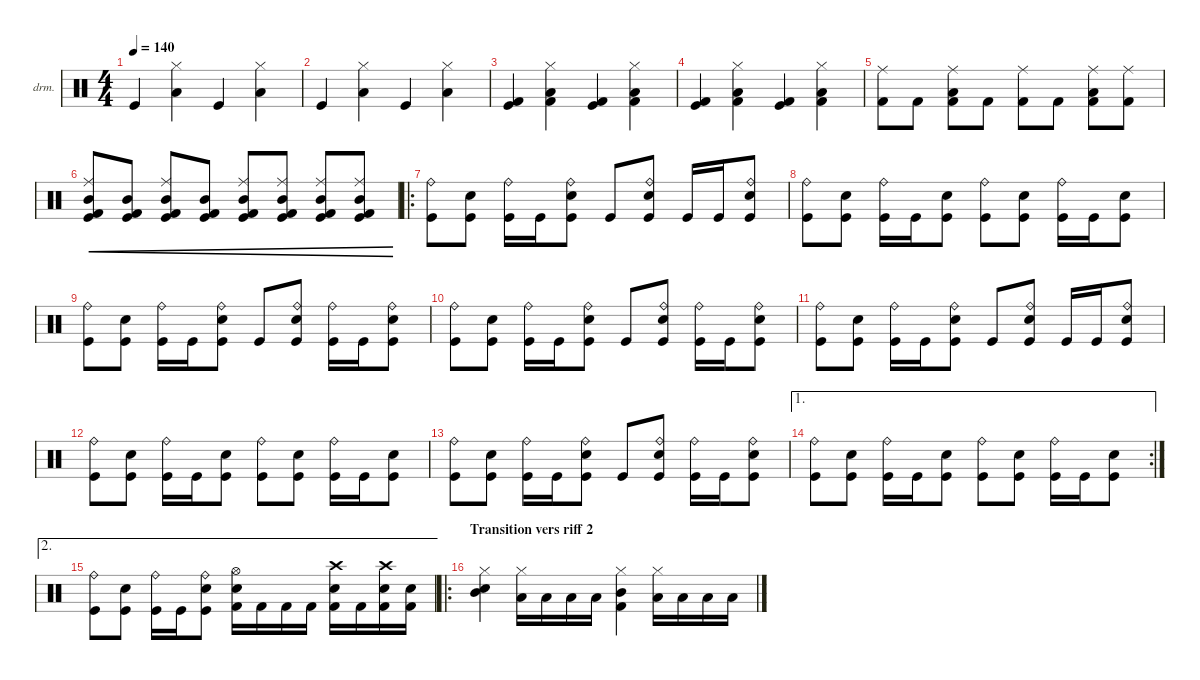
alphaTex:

\defaultSystemsLayout 4
\hideDynamics
\bracketExtendMode nobrackets
\firstSystemTrackNameOrientation horizontal
\otherSystemsTrackNameOrientation horizontal
\track ("Drumkit" "drm.") {instrument percussion}
\staff {score}
\articulation defaults
\ts (4 4)
\tempo 140
\clef neutral
\ks c "Kick (hit)".4{dy mf}
("Hi-Hat (closed)" "Low Tom (hit)").4 "Kick (hit)".4 ("Hi-Hat (closed)" "Low Tom (hit)").4 |
"Kick (hit)".4 ("Hi-Hat (closed)" "Low Tom (hit)").4 "Kick (hit)".4 ("Hi-Hat (closed)" "Low Tom (hit)").4 |
("Kick (hit)" "Kick (hit) 2").4 ("Hi-Hat (closed)" "Low Tom (hit)" "Kick (hit) 2").4 ("Kick (hit)" "Kick (hit) 2").4 ("Hi-Hat (closed)" "Low Tom (hit)" "Kick (hit) 2").4 |
("Kick (hit)" "Kick (hit) 2").4 ("Hi-Hat (closed)" "Low Tom (hit)" "Kick (hit) 2").4 ("Kick (hit)" "Kick (hit) 2").4 ("Hi-Hat (closed)" "Low Tom (hit)" "Kick (hit) 2").4 |
("Ride (middle)" "Kick (hit) 2").8 "Kick (hit) 2".8 ("Low Tom (hit)" "Ride (middle)" "Kick (hit) 2").8 "Kick (hit) 2".8 ("Ride (middle)" "Kick (hit) 2").8 "Kick (hit) 2".8 ("Low Tom (hit)" "Ride (middle)" "Kick (hit) 2").8 ("Ride (middle)" "Kick (hit) 2").8 |
("Mid Tom (hit)" "Kick (hit) 2" "Kick (hit)" "Ride (middle)").8{cre} ("Mid Tom (hit)" "Kick (hit)" "Kick (hit) 2").8{cre} ("Mid Tom (hit)" "Kick (hit)" "Kick (hit) 2" "Ride (middle)").8{cre} ("Mid Tom (hit)" "Kick (hit)" "Kick (hit) 2").8{cre} ("Mid Tom (hit)" "Kick (hit)" "Kick (hit) 2" "Ride (middle)").8{cre} ("Mid Tom (hit)" "Kick (hit)" "Kick (hit) 2" "Ride (middle)").8{cre} ("Mid Tom (hit)" "Kick (hit)" "Kick (hit) 2" "Ride (middle)").8{cre} ("Mid Tom (hit)" "Kick (hit)" "Kick (hit) 2" "Ride (middle)").8{cre} |
\ro
("Kick (hit)" "Ride (bell)").8 ("Snare (hit) 2" "Kick (hit)").8 ("Kick (hit)" "Ride (bell)").16 "Kick (hit)".16 ("Snare (hit) 2" "Kick (hit)" "Ride (bell)").8 "Kick (hit)".8 ("Snare (hit) 2" "Kick (hit)" "Ride (bell)").8 "Kick (hit)".16 "Kick (hit)".16 ("Snare (hit) 2" "Kick (hit)" "Ride (bell)").8 |
("Kick (hit)" "Ride (bell)").8 ("Snare (hit) 2" "Kick (hit)").8 ("Kick (hit)" "Ride (bell)").16 "Kick (hit)".16 ("Snare (hit) 2" "Kick (hit)").8 ("Kick (hit)" "Ride (bell)").8 ("Snare (hit) 2" "Kick (hit)").8 ("Kick (hit)" "Ride (bell)").16 "Kick (hit)".16 ("Snare (hit) 2" "Kick (hit)").8 |
("Kick (hit)" "Ride (bell)").8 ("Snare (hit) 2" "Kick (hit)").8 ("Kick (hit)" "Ride (bell)").16 "Kick (hit)".16 ("Snare (hit) 2" "Kick (hit)" "Ride (bell)").8 "Kick (hit)".8 ("Snare (hit) 2" "Kick (hit)" "Ride (bell)").8 ("Kick (hit)" "Ride (bell)").16 "Kick (hit)".16 ("Snare (hit) 2" "Kick (hit)" "Ride (bell)").8 |
("Kick (hit)" "Ride (bell)").8 ("Snare (hit) 2" "Kick (hit)").8 ("Kick (hit)" "Ride (bell)").16 "Kick (hit)".16 ("Snare (hit) 2" "Kick (hit)" "Ride (bell)").8 "Kick (hit)".8 ("Snare (hit) 2" "Kick (hit)" "Ride (bell)").8 ("Kick (hit)" "Ride (bell)").16 "Kick (hit)".16 ("Snare (hit) 2" "Kick (hit)" "Ride (bell)").8 |
("Kick (hit)" "Ride (bell)").8 ("Snare (hit) 2" "Kick (hit)").8 ("Kick (hit)" "Ride (bell)").16 "Kick (hit)".16 ("Snare (hit) 2" "Kick (hit)" "Ride (bell)").8 "Kick (hit)".8 ("Snare (hit) 2" "Kick (hit)" "Ride (bell)").8 "Kick (hit)".16 "Kick (hit)".16 ("Snare (hit) 2" "Kick (hit)" "Ride (bell)").8 |
("Kick (hit)" "Ride (bell)").8 ("Snare (hit) 2" "Kick (hit)").8 ("Kick (hit)" "Ride (bell)").16 "Kick (hit)".16 ("Snare (hit) 2" "Kick (hit)").8 ("Kick (hit)" "Ride (bell)").8 ("Snare (hit) 2" "Kick (hit)").8 ("Kick (hit)" "Ride (bell)").16 "Kick (hit)".16 ("Snare (hit) 2" "Kick (hit)").8 |
("Kick (hit)" "Ride (bell)").8 ("Snare (hit) 2" "Kick (hit)").8 ("Kick (hit)" "Ride (bell)").16 "Kick (hit)".16 ("Snare (hit) 2" "Kick (hit)" "Ride (bell)").8 "Kick (hit)".8 ("Snare (hit) 2" "Kick (hit)" "Ride (bell)").8 ("Kick (hit)" "Ride (bell)").16 "Kick (hit)".16 ("Snare (hit) 2" "Kick (hit)" "Ride (bell)").8 |
\ae 1
\rc 2
("Kick (hit)" "Ride (bell)").8 ("Snare (hit) 2" "Kick (hit)").8 ("Kick (hit)" "Ride (bell)").16 "Kick (hit)".16 ("Snare (hit) 2" "Kick (hit)").8 ("Kick (hit)" "Ride (bell)").8 ("Snare (hit) 2" "Kick (hit)").8 ("Kick (hit)" "Ride (bell)").16 "Kick (hit)".16 ("Snare (hit) 2" "Kick (hit)").8 |
\ae 2
("Kick (hit)" "Ride (bell)").8 ("Snare (hit) 2" "Kick (hit)").8 ("Kick (hit)" "Ride (bell)").16 "Kick (hit)".16 ("Snare (hit) 2" "Kick (hit)" "Ride (bell)").8 ("Hi-Hat (open)" "Snare (hit) 2" "Kick (hit) 2").16 "Kick (hit) 2".16 "Kick (hit) 2".16 "Kick (hit) 2".16 ("Crash high (hit)" "Snare (hit) 2" "Kick (hit) 2").16 "Kick (hit) 2".16 ("Crash high (hit)" "Snare (hit) 2" "Kick (hit) 2").16 ("Snare (hit) 2" "Kick (hit) 2").16 |
\ro
\section ("" "Transition vers riff 2")
("Snare (hit) 2" "Mid Tom (hit)" "Hi-Hat (closed)").4{dy fff} ("Low Tom (hit)" "Hi-Hat (closed)").16 "Low Tom (hit)".16 "Low Tom (hit)".16 "Low Tom (hit)".16 ("Mid Tom (hit)" "Kick (hit) 2" "Hi-Hat (closed)").4 ("Low Tom (hit)" "Hi-Hat (closed)").16 "Low Tom (hit)".16 "Low Tom (hit)".16 "Low Tom (hit)".16
